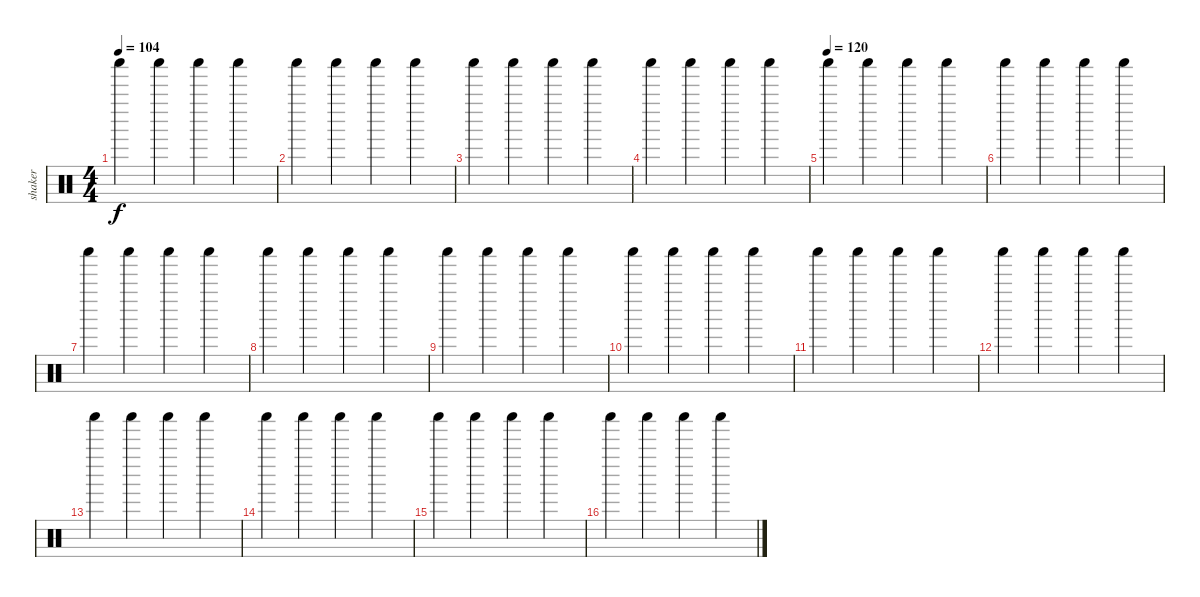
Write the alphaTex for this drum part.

\track ("shaker" "shaker") {instrument percussion}
\staff {score}
\articulation defaults
\ts (4 4)
\tempo 104
\clef neutral
\ks c "Shaker (hit)".4{dy f} "Shaker (hit)".4 "Shaker (hit)".4 "Shaker (hit)".4
|
"Shaker (hit)".4 "Shaker (hit)".4 "Shaker (hit)".4 "Shaker (hit)".4 |
"Shaker (hit)".4 "Shaker (hit)".4 "Shaker (hit)".4 "Shaker (hit)".4 |
"Shaker (hit)".4 "Shaker (hit)".4 "Shaker (hit)".4 "Shaker (hit)".4 |
\tempo (120)
"Shaker (hit)".4 "Shaker (hit)".4 "Shaker (hit)".4 "Shaker (hit)".4 |
"Shaker (hit)".4 "Shaker (hit)".4 "Shaker (hit)".4 "Shaker (hit)".4 |
"Shaker (hit)".4 "Shaker (hit)".4 "Shaker (hit)".4 "Shaker (hit)".4 |
"Shaker (hit)".4 "Shaker (hit)".4 "Shaker (hit)".4 "Shaker (hit)".4 |
"Shaker (hit)".4 "Shaker (hit)".4 "Shaker (hit)".4 "Shaker (hit)".4 |
"Shaker (hit)".4 "Shaker (hit)".4 "Shaker (hit)".4 "Shaker (hit)".4 |
"Shaker (hit)".4 "Shaker (hit)".4 "Shaker (hit)".4 "Shaker (hit)".4 |
"Shaker (hit)".4 "Shaker (hit)".4 "Shaker (hit)".4 "Shaker (hit)".4 |
"Shaker (hit)".4 "Shaker (hit)".4 "Shaker (hit)".4 "Shaker (hit)".4 |
"Shaker (hit)".4 "Shaker (hit)".4 "Shaker (hit)".4 "Shaker (hit)".4 |
"Shaker (hit)".4 "Shaker (hit)".4 "Shaker (hit)".4 "Shaker (hit)".4 |
"Shaker (hit)".4 "Shaker (hit)".4 "Shaker (hit)".4 "Shaker (hit)".4
